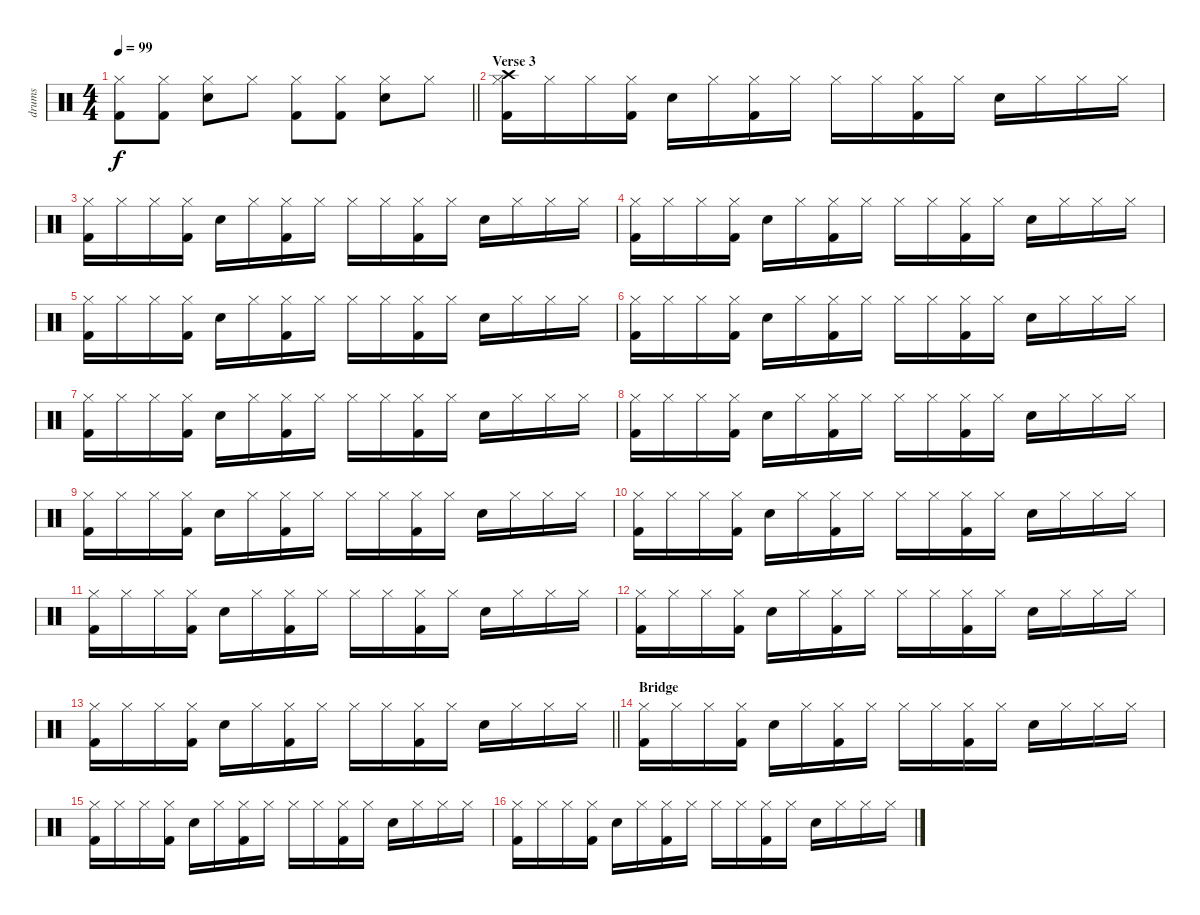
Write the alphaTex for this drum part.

\track ("drums" "drums") {instrument percussion}
\staff {score}
\articulation defaults
\ts (4 4)
\tempo 99
\clef neutral
\barLineRight lightlight
\ks c
("Hi-Hat (closed)" "Kick (hit) 2").8{dy f} ("Hi-Hat (closed)" "Kick (hit) 2").8 ("Hi-Hat (closed)" "Snare (hit) 2").8 "Hi-Hat (closed)".8 ("Hi-Hat (closed)" "Kick (hit) 2").8 ("Hi-Hat (closed)" "Kick (hit) 2").8 ("Hi-Hat (closed)" "Snare (hit) 2").8 "Hi-Hat (closed)".8 |
\section ("" "Verse 3")
("Crash high (hit)" "Hi-Hat (closed)" "Kick (hit) 2").16 "Hi-Hat (closed)".16 "Hi-Hat (closed)".16 ("Hi-Hat (closed)" "Kick (hit) 2").16 "Snare (hit) 2".16 "Hi-Hat (closed)".16 ("Hi-Hat (closed)" "Kick (hit) 2").16 "Hi-Hat (closed)".16 "Hi-Hat (closed)"{nh}.16 "Hi-Hat (closed)".16 ("Hi-Hat (closed)" "Kick (hit) 2").16 "Hi-Hat (closed)".16 "Snare (hit) 2".16 "Hi-Hat (closed)".16 "Hi-Hat (closed)".16 "Hi-Hat (closed)".16 |
("Hi-Hat (closed)" "Kick (hit) 2").16 "Hi-Hat (closed)".16 "Hi-Hat (closed)".16 ("Hi-Hat (closed)" "Kick (hit) 2").16 "Snare (hit) 2".16 "Hi-Hat (closed)".16 ("Hi-Hat (closed)" "Kick (hit) 2").16 "Hi-Hat (closed)".16 "Hi-Hat (closed)"{nh}.16 "Hi-Hat (closed)".16 ("Hi-Hat (closed)" "Kick (hit) 2").16 "Hi-Hat (closed)".16 "Snare (hit) 2".16 "Hi-Hat (closed)".16 "Hi-Hat (closed)".16 "Hi-Hat (closed)".16 |
("Hi-Hat (closed)" "Kick (hit) 2").16 "Hi-Hat (closed)".16 "Hi-Hat (closed)".16 ("Hi-Hat (closed)" "Kick (hit) 2").16 "Snare (hit) 2".16 "Hi-Hat (closed)".16 ("Hi-Hat (closed)" "Kick (hit) 2").16 "Hi-Hat (closed)".16 "Hi-Hat (closed)"{nh}.16 "Hi-Hat (closed)".16 ("Hi-Hat (closed)" "Kick (hit) 2").16 "Hi-Hat (closed)".16 "Snare (hit) 2".16 "Hi-Hat (closed)".16 "Hi-Hat (closed)".16 "Hi-Hat (closed)".16 |
("Hi-Hat (closed)" "Kick (hit) 2").16 "Hi-Hat (closed)".16 "Hi-Hat (closed)".16 ("Hi-Hat (closed)" "Kick (hit) 2").16 "Snare (hit) 2".16 "Hi-Hat (closed)".16 ("Hi-Hat (closed)" "Kick (hit) 2").16 "Hi-Hat (closed)".16 "Hi-Hat (closed)"{nh}.16 "Hi-Hat (closed)".16 ("Hi-Hat (closed)" "Kick (hit) 2").16 "Hi-Hat (closed)".16 "Snare (hit) 2".16 "Hi-Hat (closed)".16 "Hi-Hat (closed)".16 "Hi-Hat (closed)".16 |
("Hi-Hat (closed)" "Kick (hit) 2").16 "Hi-Hat (closed)".16 "Hi-Hat (closed)".16 ("Hi-Hat (closed)" "Kick (hit) 2").16 "Snare (hit) 2".16 "Hi-Hat (closed)".16 ("Hi-Hat (closed)" "Kick (hit) 2").16 "Hi-Hat (closed)".16 "Hi-Hat (closed)"{nh}.16 "Hi-Hat (closed)".16 ("Hi-Hat (closed)" "Kick (hit) 2").16 "Hi-Hat (closed)".16 "Snare (hit) 2".16 "Hi-Hat (closed)".16 "Hi-Hat (closed)".16 "Hi-Hat (closed)".16 |
("Hi-Hat (closed)" "Kick (hit) 2").16 "Hi-Hat (closed)".16 "Hi-Hat (closed)".16 ("Hi-Hat (closed)" "Kick (hit) 2").16 "Snare (hit) 2".16 "Hi-Hat (closed)".16 ("Hi-Hat (closed)" "Kick (hit) 2").16 "Hi-Hat (closed)".16 "Hi-Hat (closed)"{nh}.16 "Hi-Hat (closed)".16 ("Hi-Hat (closed)" "Kick (hit) 2").16 "Hi-Hat (closed)".16 "Snare (hit) 2".16 "Hi-Hat (closed)".16 "Hi-Hat (closed)".16 "Hi-Hat (closed)".16 |
("Hi-Hat (closed)" "Kick (hit) 2").16 "Hi-Hat (closed)".16 "Hi-Hat (closed)".16 ("Hi-Hat (closed)" "Kick (hit) 2").16 "Snare (hit) 2".16 "Hi-Hat (closed)".16 ("Hi-Hat (closed)" "Kick (hit) 2").16 "Hi-Hat (closed)".16 "Hi-Hat (closed)"{nh}.16 "Hi-Hat (closed)".16 ("Hi-Hat (closed)" "Kick (hit) 2").16 "Hi-Hat (closed)".16 "Snare (hit) 2".16 "Hi-Hat (closed)".16 "Hi-Hat (closed)".16 "Hi-Hat (closed)".16 |
("Hi-Hat (closed)" "Kick (hit) 2").16 "Hi-Hat (closed)".16 "Hi-Hat (closed)".16 ("Hi-Hat (closed)" "Kick (hit) 2").16 "Snare (hit) 2".16 "Hi-Hat (closed)".16 ("Hi-Hat (closed)" "Kick (hit) 2").16 "Hi-Hat (closed)".16 "Hi-Hat (closed)"{nh}.16 "Hi-Hat (closed)".16 ("Hi-Hat (closed)" "Kick (hit) 2").16 "Hi-Hat (closed)".16 "Snare (hit) 2".16 "Hi-Hat (closed)".16 "Hi-Hat (closed)".16 "Hi-Hat (closed)".16 |
("Hi-Hat (closed)" "Kick (hit) 2").16 "Hi-Hat (closed)".16 "Hi-Hat (closed)".16 ("Hi-Hat (closed)" "Kick (hit) 2").16 "Snare (hit) 2".16 "Hi-Hat (closed)".16 ("Hi-Hat (closed)" "Kick (hit) 2").16 "Hi-Hat (closed)".16 "Hi-Hat (closed)"{nh}.16 "Hi-Hat (closed)".16 ("Hi-Hat (closed)" "Kick (hit) 2").16 "Hi-Hat (closed)".16 "Snare (hit) 2".16 "Hi-Hat (closed)".16 "Hi-Hat (closed)".16 "Hi-Hat (closed)".16 |
("Hi-Hat (closed)" "Kick (hit) 2").16 "Hi-Hat (closed)".16 "Hi-Hat (closed)".16 ("Hi-Hat (closed)" "Kick (hit) 2").16 "Snare (hit) 2".16 "Hi-Hat (closed)".16 ("Hi-Hat (closed)" "Kick (hit) 2").16 "Hi-Hat (closed)".16 "Hi-Hat (closed)"{nh}.16 "Hi-Hat (closed)".16 ("Hi-Hat (closed)" "Kick (hit) 2").16 "Hi-Hat (closed)".16 "Snare (hit) 2".16 "Hi-Hat (closed)".16 "Hi-Hat (closed)".16 "Hi-Hat (closed)".16 |
("Hi-Hat (closed)" "Kick (hit) 2").16 "Hi-Hat (closed)".16 "Hi-Hat (closed)".16 ("Hi-Hat (closed)" "Kick (hit) 2").16 "Snare (hit) 2".16 "Hi-Hat (closed)".16 ("Hi-Hat (closed)" "Kick (hit) 2").16 "Hi-Hat (closed)".16 "Hi-Hat (closed)"{nh}.16 "Hi-Hat (closed)".16 ("Hi-Hat (closed)" "Kick (hit) 2").16 "Hi-Hat (closed)".16 "Snare (hit) 2".16 "Hi-Hat (closed)".16 "Hi-Hat (closed)".16 "Hi-Hat (closed)".16 |
\barLineRight lightlight
("Hi-Hat (closed)" "Kick (hit) 2").16 "Hi-Hat (closed)".16 "Hi-Hat (closed)".16 ("Hi-Hat (closed)" "Kick (hit) 2").16 "Snare (hit) 2".16 "Hi-Hat (closed)".16 ("Hi-Hat (closed)" "Kick (hit) 2").16 "Hi-Hat (closed)".16 "Hi-Hat (closed)"{nh}.16 "Hi-Hat (closed)".16 ("Hi-Hat (closed)" "Kick (hit) 2").16 "Hi-Hat (closed)".16 "Snare (hit) 2".16 "Hi-Hat (closed)".16 "Hi-Hat (closed)".16 "Hi-Hat (closed)".16 |
\section ("" "Bridge")
("Hi-Hat (closed)" "Kick (hit) 2").16 "Hi-Hat (closed)".16 "Hi-Hat (closed)".16 ("Hi-Hat (closed)" "Kick (hit) 2").16 "Snare (hit) 2".16 "Hi-Hat (closed)".16 ("Hi-Hat (closed)" "Kick (hit) 2").16 "Hi-Hat (closed)".16 "Hi-Hat (closed)"{nh}.16 "Hi-Hat (closed)".16 ("Hi-Hat (closed)" "Kick (hit) 2").16 "Hi-Hat (closed)".16 "Snare (hit) 2".16 "Hi-Hat (closed)".16 "Hi-Hat (closed)".16 "Hi-Hat (closed)".16 |
("Hi-Hat (closed)" "Kick (hit) 2").16 "Hi-Hat (closed)".16 "Hi-Hat (closed)".16 ("Hi-Hat (closed)" "Kick (hit) 2").16 "Snare (hit) 2".16 "Hi-Hat (closed)".16 ("Hi-Hat (closed)" "Kick (hit) 2").16 "Hi-Hat (closed)".16 "Hi-Hat (closed)"{nh}.16 "Hi-Hat (closed)".16 ("Hi-Hat (closed)" "Kick (hit) 2").16 "Hi-Hat (closed)".16 "Snare (hit) 2".16 "Hi-Hat (closed)".16 "Hi-Hat (closed)".16 "Hi-Hat (closed)".16 |
("Hi-Hat (closed)" "Kick (hit) 2").16 "Hi-Hat (closed)".16 "Hi-Hat (closed)".16 ("Hi-Hat (closed)" "Kick (hit) 2").16 "Snare (hit) 2".16 "Hi-Hat (closed)".16 ("Hi-Hat (closed)" "Kick (hit) 2").16 "Hi-Hat (closed)".16 "Hi-Hat (closed)"{nh}.16 "Hi-Hat (closed)".16 ("Hi-Hat (closed)" "Kick (hit) 2").16 "Hi-Hat (closed)".16 "Snare (hit) 2".16 "Hi-Hat (closed)".16 "Hi-Hat (closed)".16 "Hi-Hat (closed)".16
